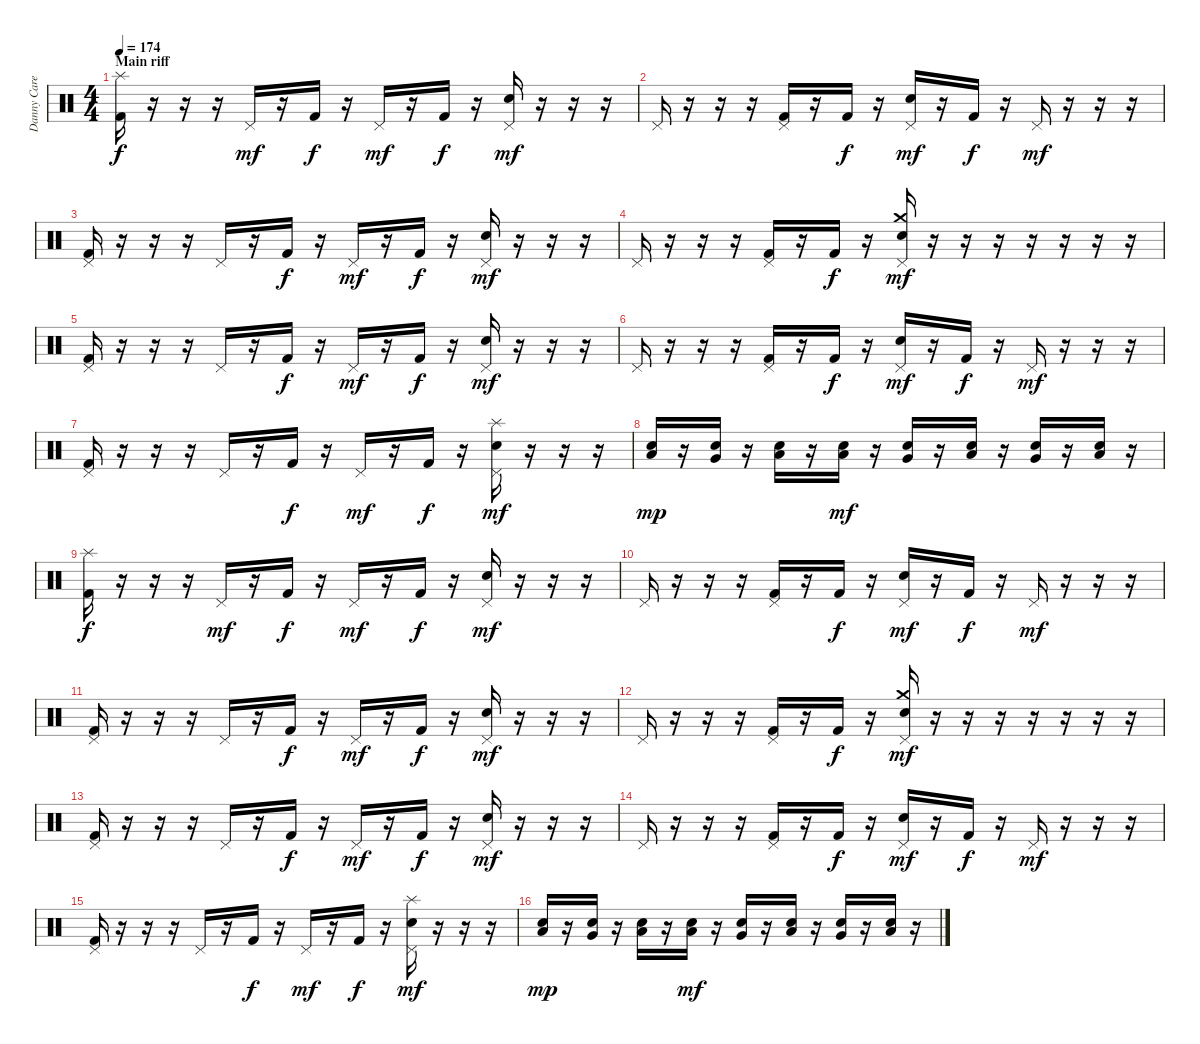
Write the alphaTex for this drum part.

\track ("Danny Carey" "Danny Care") {instrument percussion}
\staff {score}
\articulation defaults
\ts (4 4)
\section ("" "Main riff")
\tempo 174
\clef neutral
\ks c
("Splash (hit)" "Kick (hit) 2").16{dy f} r.16 r.16 r.16 "Pedal Hi-Hat (hit)".16{dy mf} r.16 "Kick (hit) 2".16{dy f} r.16 "Pedal Hi-Hat (hit)".16{dy mf} r.16 "Kick (hit) 2".16{dy f} r.16 ("Pedal Hi-Hat (hit)" "Snare (hit) 2").16{dy mf} r.16 r.16 r.16 |
"Pedal Hi-Hat (hit)".16 r.16 r.16 r.16 ("Pedal Hi-Hat (hit)" "Kick (hit) 2").16 r.16 "Kick (hit) 2".16{dy f} r.16 ("Pedal Hi-Hat (hit)" "Snare (hit) 2").16{dy mf} r.16 "Kick (hit) 2".16{dy f} r.16 "Pedal Hi-Hat (hit)".16{dy mf} r.16 r.16 r.16 |
("Pedal Hi-Hat (hit)" "Kick (hit) 2").16 r.16 r.16 r.16 "Pedal Hi-Hat (hit)".16 r.16 "Kick (hit) 2".16{dy f} r.16 "Pedal Hi-Hat (hit)".16{dy mf} r.16 "Kick (hit) 2".16{dy f} r.16 ("Pedal Hi-Hat (hit)" "Snare (hit) 2").16{dy mf} r.16 r.16 r.16 |
"Pedal Hi-Hat (hit)".16 r.16 r.16 r.16 ("Pedal Hi-Hat (hit)" "Kick (hit) 2").16 r.16 "Kick (hit) 2".16{dy f} r.16 ("Crash medium (hit)" "Pedal Hi-Hat (hit)" "Electric Snare (hit)").16{dy mf} r.16 r.16 r.16 r.16 r.16 r.16 r.16 |
("Pedal Hi-Hat (hit)" "Kick (hit) 2").16 r.16 r.16 r.16 "Pedal Hi-Hat (hit)".16 r.16 "Kick (hit) 2".16{dy f} r.16 "Pedal Hi-Hat (hit)".16{dy mf} r.16 "Kick (hit) 2".16{dy f} r.16 ("Pedal Hi-Hat (hit)" "Snare (hit) 2").16{dy mf} r.16 r.16 r.16 |
"Pedal Hi-Hat (hit)".16 r.16 r.16 r.16 ("Pedal Hi-Hat (hit)" "Kick (hit) 2").16 r.16 "Kick (hit) 2".16{dy f} r.16 ("Pedal Hi-Hat (hit)" "Snare (hit) 2").16{dy mf} r.16 "Kick (hit) 2".16{dy f} r.16 "Pedal Hi-Hat (hit)".16{dy mf} r.16 r.16 r.16 |
("Pedal Hi-Hat (hit)" "Kick (hit) 2").16 r.16 r.16 r.16 "Pedal Hi-Hat (hit)".16 r.16 "Kick (hit) 2".16{dy f} r.16 "Pedal Hi-Hat (hit)".16{dy mf} r.16 "Kick (hit) 2".16{dy f} r.16 ("Splash (hit)" "Pedal Hi-Hat (hit)" "Snare (hit) 2").16{dy mf} r.16 r.16 r.16 |
("Low Floor Tom (hit)" "Snare (hit) 2").16{dy mp} r.16 ("Very Low Tom (hit)" "Snare (hit) 2").16 r.16 ("Low Tom (hit)" "Snare (hit) 2").16 r.16 ("Low Tom (hit)" "Snare (hit) 2").16{dy mf} r.16 ("Very Low Tom (hit)" "Snare (hit) 2").16 r.16 ("Low Tom (hit)" "Snare (hit) 2").16 r.16 ("Very Low Tom (hit)" "Snare (hit) 2").16 r.16 ("Low Floor Tom (hit)" "Snare (hit) 2").16 r.16 |
("Splash (hit)" "Kick (hit) 2").16{dy f} r.16 r.16 r.16 "Pedal Hi-Hat (hit)".16{dy mf} r.16 "Kick (hit) 2".16{dy f} r.16 "Pedal Hi-Hat (hit)".16{dy mf} r.16 "Kick (hit) 2".16{dy f} r.16 ("Pedal Hi-Hat (hit)" "Snare (hit) 2").16{dy mf} r.16 r.16 r.16 |
"Pedal Hi-Hat (hit)".16 r.16 r.16 r.16 ("Pedal Hi-Hat (hit)" "Kick (hit) 2").16 r.16 "Kick (hit) 2".16{dy f} r.16 ("Pedal Hi-Hat (hit)" "Snare (hit) 2").16{dy mf} r.16 "Kick (hit) 2".16{dy f} r.16 "Pedal Hi-Hat (hit)".16{dy mf} r.16 r.16 r.16 |
("Pedal Hi-Hat (hit)" "Kick (hit) 2").16 r.16 r.16 r.16 "Pedal Hi-Hat (hit)".16 r.16 "Kick (hit) 2".16{dy f} r.16 "Pedal Hi-Hat (hit)".16{dy mf} r.16 "Kick (hit) 2".16{dy f} r.16 ("Pedal Hi-Hat (hit)" "Snare (hit) 2").16{dy mf} r.16 r.16 r.16 |
"Pedal Hi-Hat (hit)".16 r.16 r.16 r.16 ("Pedal Hi-Hat (hit)" "Kick (hit) 2").16 r.16 "Kick (hit) 2".16{dy f} r.16 ("Crash medium (hit)" "Pedal Hi-Hat (hit)" "Electric Snare (hit)").16{dy mf} r.16 r.16 r.16 r.16 r.16 r.16 r.16 |
("Pedal Hi-Hat (hit)" "Kick (hit) 2").16 r.16 r.16 r.16 "Pedal Hi-Hat (hit)".16 r.16 "Kick (hit) 2".16{dy f} r.16 "Pedal Hi-Hat (hit)".16{dy mf} r.16 "Kick (hit) 2".16{dy f} r.16 ("Pedal Hi-Hat (hit)" "Snare (hit) 2").16{dy mf} r.16 r.16 r.16 |
"Pedal Hi-Hat (hit)".16 r.16 r.16 r.16 ("Pedal Hi-Hat (hit)" "Kick (hit) 2").16 r.16 "Kick (hit) 2".16{dy f} r.16 ("Pedal Hi-Hat (hit)" "Snare (hit) 2").16{dy mf} r.16 "Kick (hit) 2".16{dy f} r.16 "Pedal Hi-Hat (hit)".16{dy mf} r.16 r.16 r.16 |
("Pedal Hi-Hat (hit)" "Kick (hit) 2").16 r.16 r.16 r.16 "Pedal Hi-Hat (hit)".16 r.16 "Kick (hit) 2".16{dy f} r.16 "Pedal Hi-Hat (hit)".16{dy mf} r.16 "Kick (hit) 2".16{dy f} r.16 ("Splash (hit)" "Pedal Hi-Hat (hit)" "Snare (hit) 2").16{dy mf} r.16 r.16 r.16 |
("Low Floor Tom (hit)" "Snare (hit) 2").16{dy mp} r.16 ("Very Low Tom (hit)" "Snare (hit) 2").16 r.16 ("Low Tom (hit)" "Snare (hit) 2").16 r.16 ("Low Tom (hit)" "Snare (hit) 2").16{dy mf} r.16 ("Very Low Tom (hit)" "Snare (hit) 2").16 r.16 ("Low Tom (hit)" "Snare (hit) 2").16 r.16 ("Very Low Tom (hit)" "Snare (hit) 2").16 r.16 ("Low Floor Tom (hit)" "Snare (hit) 2").16 r.16
